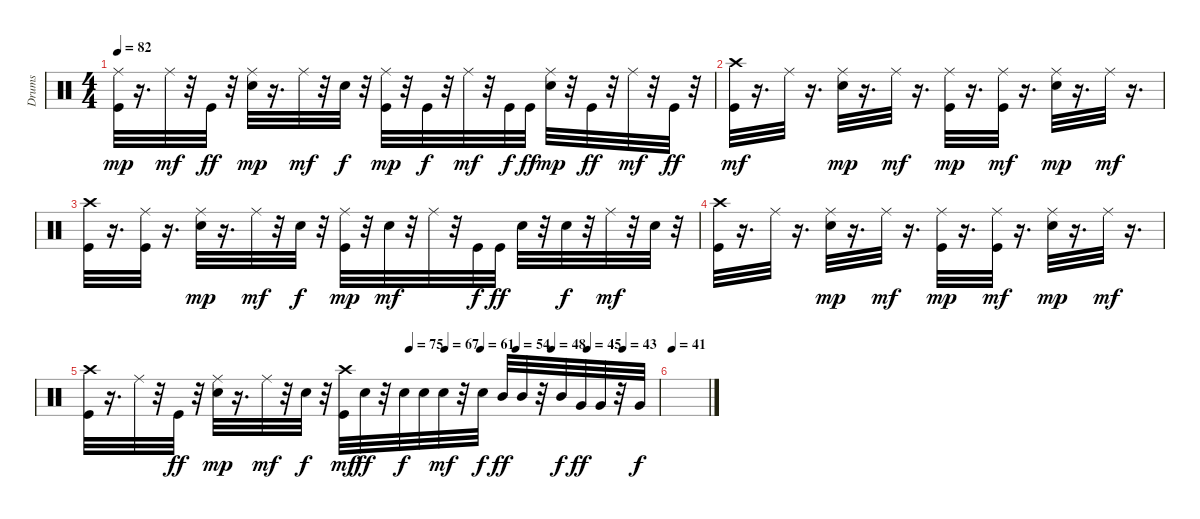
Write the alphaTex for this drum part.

\track ("Drums" "Drums") {instrument percussion}
\staff {score}
\articulation defaults
\ts (4 4)
\tempo 82
\clef neutral
\ks c
("Kick (hit)" "Ride (middle)").32{dy mp} r.16{d} "Ride (middle)".32{dy mf} r.32 "Kick (hit)".32{dy ff} r.32 ("Snare (hit) 2" "Ride (middle)").32{dy mp} r.16{d} "Ride (middle)".32{dy mf} r.32 "Snare (hit) 2".32{dy f} r.32 ("Kick (hit)" "Ride (middle)").32{dy mp} r.32 "Kick (hit)".32{dy f} r.32 "Ride (middle)".32{dy mf} r.32 "Kick (hit)".32{dy f} "Kick (hit)".32{dy ff} ("Snare (hit) 2" "Ride (middle)").32{dy mp} r.32 "Kick (hit)".32{dy ff} r.32 "Ride (middle)".32{dy mf} r.32 "Kick (hit)".32{dy ff} r.32 |
("Kick (hit)" "Crash high (hit)").32{dy mf} r.16{d} "Ride (middle)".32 r.16{d} ("Snare (hit) 2" "Ride (middle)").32{dy mp} r.16{d} "Ride (middle)".32{dy mf} r.16{d} ("Kick (hit)" "Ride (middle)").32{dy mp} r.16{d} ("Kick (hit)" "Ride (middle)").32{dy mf} r.16{d} ("Snare (hit) 2" "Ride (middle)").32{dy mp} r.16{d} "Ride (middle)".32{dy mf} r.16{d} |
("Kick (hit)" "Crash high (hit)").32 r.16{d} ("Kick (hit)" "Ride (middle)").32 r.16{d} ("Snare (hit) 2" "Ride (middle)").32{dy mp} r.16{d} "Ride (middle)".32{dy mf} r.32 "Snare (hit) 2".32{dy f} r.32 ("Kick (hit)" "Ride (middle)").32{dy mp} r.32 "Snare (hit) 2".32{dy mf} r.32 "Ride (middle)".32 r.32 "Kick (hit)".32{dy f} "Kick (hit)".32{dy ff} "Snare (hit) 2".32 r.32 "Snare (hit) 2".32{dy f} r.32 "Ride (middle)".32{dy mf} r.32 "Snare (hit) 2".32 r.32 |
("Kick (hit)" "Crash high (hit)").32 r.16{d} "Ride (middle)".32 r.16{d} ("Snare (hit) 2" "Ride (middle)").32{dy mp} r.16{d} "Ride (middle)".32{dy mf} r.16{d} ("Kick (hit)" "Ride (middle)").32{dy mp} r.16{d} ("Kick (hit)" "Ride (middle)").32{dy mf} r.16{d} ("Snare (hit) 2" "Ride (middle)").32{dy mp} r.16{d} "Ride (middle)".32{dy mf} r.16{d} |
\tempo (75 0.5625)
\tempo (67 0.625)
\tempo (61 0.6875)
\tempo (54 0.75)
\tempo (48 0.8125)
\tempo (45 0.875)
\tempo (43 0.9375)
("Kick (hit)" "Crash high (hit)").32 r.16{d} "Ride (middle)".32 r.32 "Kick (hit)".32{dy ff} r.32 ("Snare (hit) 2" "Ride (middle)").32{dy mp} r.16{d} "Ride (middle)".32{dy mf} r.32 "Snare (hit) 2".32{dy f} r.32 ("Kick (hit)" "Crash high (hit)").32{dy mf} "Snare (hit) 2".32{dy ff} r.32 "Snare (hit) 2".32{dy f} "Snare (hit) 2".32 "Snare (hit) 2".32{dy mf} r.32 "Snare (hit) 2".32{dy f} "Mid Tom (hit)".32{dy ff} "Mid Tom (hit)".32 r.32 "Mid Tom (hit)".32{dy f} "Very Low Tom (hit)".32{dy ff} "Very Low Tom (hit)".32 r.32 "Very Low Tom (hit)".32{dy f} |
\tempo 41
